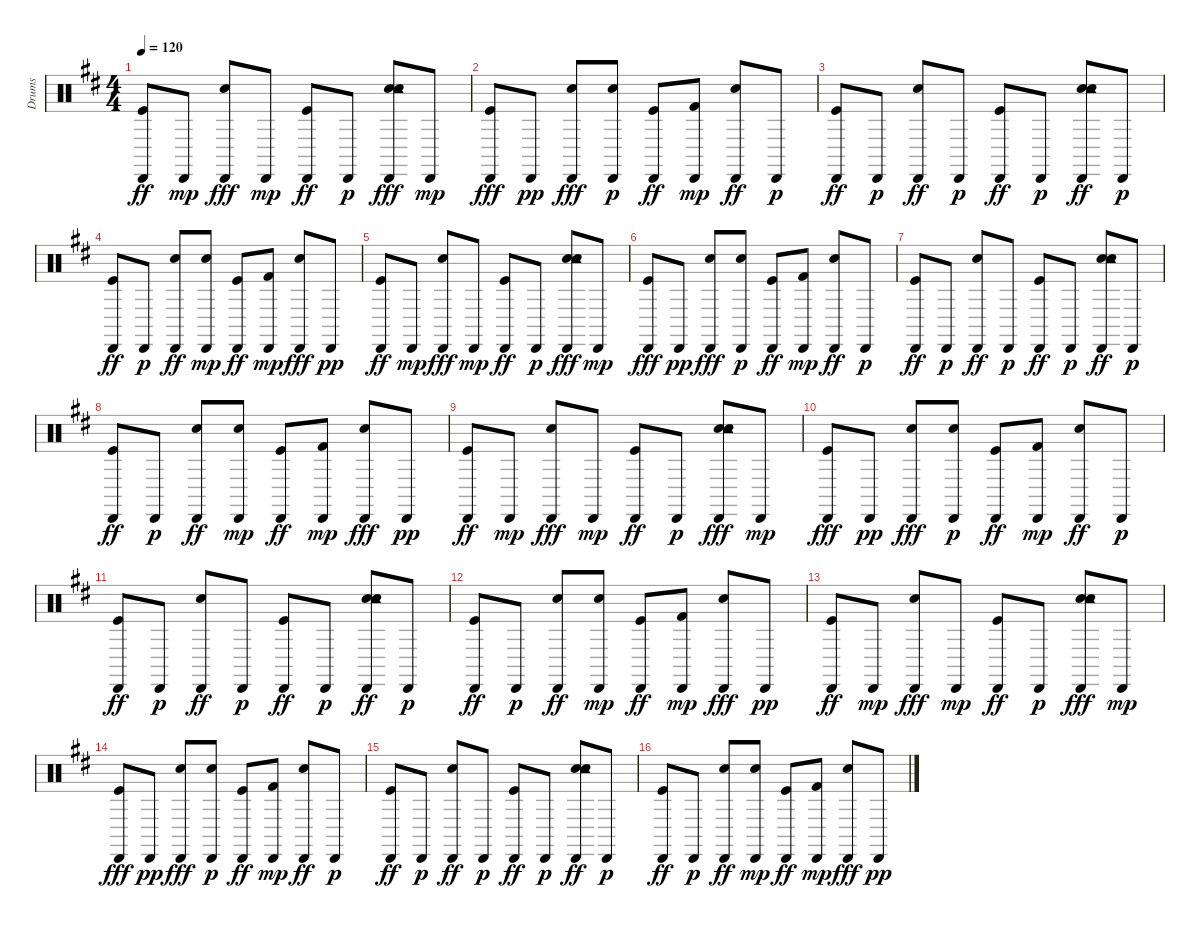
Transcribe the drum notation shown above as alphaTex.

\track ("Drums" "Drums") {instrument percussion}
\staff {score}
\articulation defaults
\ts (4 4)
\tempo 120
\clef neutral
\ks d
("Kick (hit)" "Cabasa (hit)").8{dy ff} "Cabasa (hit)".8{dy mp} ("Electric Snare (hit)" "Cabasa (hit)").8{dy fff} "Cabasa (hit)".8{dy mp} ("Kick (hit)" "Cabasa (hit)").8{dy ff} "Cabasa (hit)".8{dy p} ("Hand Clap (hit)" "Electric Snare (hit)" "Tambourine (hit)" "Cabasa (hit)").8{dy fff} "Cabasa (hit)".8{dy mp} |
("Kick (hit)" "Cabasa (hit)").8{dy fff} "Cabasa (hit)".8{dy pp} ("Electric Snare (hit)" "Cabasa (hit)").8{dy fff} ("Electric Snare (hit)" "Cabasa (hit)").8{dy p} ("Kick (hit)" "Cabasa (hit)").8{dy ff} ("Kick (hit) 2" "Cabasa (hit)").8{dy mp} ("Electric Snare (hit)" "Cabasa (hit)").8{dy ff} "Cabasa (hit)".8{dy p} |
("Kick (hit)" "Cabasa (hit)").8{dy ff} "Cabasa (hit)".8{dy p} ("Electric Snare (hit)" "Cabasa (hit)").8{dy ff} "Cabasa (hit)".8{dy p} ("Kick (hit)" "Cabasa (hit)").8{dy ff} "Cabasa (hit)".8{dy p} ("Hand Clap (hit)" "Electric Snare (hit)" "Tambourine (hit)" "Cabasa (hit)").8{dy ff} "Cabasa (hit)".8{dy p} |
("Kick (hit)" "Cabasa (hit)").8{dy ff} "Cabasa (hit)".8{dy p} ("Electric Snare (hit)" "Cabasa (hit)").8{dy ff} ("Electric Snare (hit)" "Cabasa (hit)").8{dy mp} ("Kick (hit)" "Cabasa (hit)").8{dy ff} ("Kick (hit) 2" "Cabasa (hit)").8{dy mp} ("Electric Snare (hit)" "Cabasa (hit)").8{dy fff} "Cabasa (hit)".8{dy pp} |
("Kick (hit)" "Cabasa (hit)").8{dy ff} "Cabasa (hit)".8{dy mp} ("Electric Snare (hit)" "Cabasa (hit)").8{dy fff} "Cabasa (hit)".8{dy mp} ("Kick (hit)" "Cabasa (hit)").8{dy ff} "Cabasa (hit)".8{dy p} ("Hand Clap (hit)" "Electric Snare (hit)" "Tambourine (hit)" "Cabasa (hit)").8{dy fff} "Cabasa (hit)".8{dy mp} |
("Kick (hit)" "Cabasa (hit)").8{dy fff} "Cabasa (hit)".8{dy pp} ("Electric Snare (hit)" "Cabasa (hit)").8{dy fff} ("Electric Snare (hit)" "Cabasa (hit)").8{dy p} ("Kick (hit)" "Cabasa (hit)").8{dy ff} ("Kick (hit) 2" "Cabasa (hit)").8{dy mp} ("Electric Snare (hit)" "Cabasa (hit)").8{dy ff} "Cabasa (hit)".8{dy p} |
("Kick (hit)" "Cabasa (hit)").8{dy ff} "Cabasa (hit)".8{dy p} ("Electric Snare (hit)" "Cabasa (hit)").8{dy ff} "Cabasa (hit)".8{dy p} ("Kick (hit)" "Cabasa (hit)").8{dy ff} "Cabasa (hit)".8{dy p} ("Hand Clap (hit)" "Electric Snare (hit)" "Tambourine (hit)" "Cabasa (hit)").8{dy ff} "Cabasa (hit)".8{dy p} |
("Kick (hit)" "Cabasa (hit)").8{dy ff} "Cabasa (hit)".8{dy p} ("Electric Snare (hit)" "Cabasa (hit)").8{dy ff} ("Electric Snare (hit)" "Cabasa (hit)").8{dy mp} ("Kick (hit)" "Cabasa (hit)").8{dy ff} ("Kick (hit) 2" "Cabasa (hit)").8{dy mp} ("Electric Snare (hit)" "Cabasa (hit)").8{dy fff} "Cabasa (hit)".8{dy pp} |
("Kick (hit)" "Cabasa (hit)").8{dy ff} "Cabasa (hit)".8{dy mp} ("Electric Snare (hit)" "Cabasa (hit)").8{dy fff} "Cabasa (hit)".8{dy mp} ("Kick (hit)" "Cabasa (hit)").8{dy ff} "Cabasa (hit)".8{dy p} ("Hand Clap (hit)" "Electric Snare (hit)" "Tambourine (hit)" "Cabasa (hit)").8{dy fff} "Cabasa (hit)".8{dy mp} |
("Kick (hit)" "Cabasa (hit)").8{dy fff} "Cabasa (hit)".8{dy pp} ("Electric Snare (hit)" "Cabasa (hit)").8{dy fff} ("Electric Snare (hit)" "Cabasa (hit)").8{dy p} ("Kick (hit)" "Cabasa (hit)").8{dy ff} ("Kick (hit) 2" "Cabasa (hit)").8{dy mp} ("Electric Snare (hit)" "Cabasa (hit)").8{dy ff} "Cabasa (hit)".8{dy p} |
("Kick (hit)" "Cabasa (hit)").8{dy ff} "Cabasa (hit)".8{dy p} ("Electric Snare (hit)" "Cabasa (hit)").8{dy ff} "Cabasa (hit)".8{dy p} ("Kick (hit)" "Cabasa (hit)").8{dy ff} "Cabasa (hit)".8{dy p} ("Hand Clap (hit)" "Electric Snare (hit)" "Tambourine (hit)" "Cabasa (hit)").8{dy ff} "Cabasa (hit)".8{dy p} |
("Kick (hit)" "Cabasa (hit)").8{dy ff} "Cabasa (hit)".8{dy p} ("Electric Snare (hit)" "Cabasa (hit)").8{dy ff} ("Electric Snare (hit)" "Cabasa (hit)").8{dy mp} ("Kick (hit)" "Cabasa (hit)").8{dy ff} ("Kick (hit) 2" "Cabasa (hit)").8{dy mp} ("Electric Snare (hit)" "Cabasa (hit)").8{dy fff} "Cabasa (hit)".8{dy pp} |
("Kick (hit)" "Cabasa (hit)").8{dy ff} "Cabasa (hit)".8{dy mp} ("Electric Snare (hit)" "Cabasa (hit)").8{dy fff} "Cabasa (hit)".8{dy mp} ("Kick (hit)" "Cabasa (hit)").8{dy ff} "Cabasa (hit)".8{dy p} ("Hand Clap (hit)" "Electric Snare (hit)" "Tambourine (hit)" "Cabasa (hit)").8{dy fff} "Cabasa (hit)".8{dy mp} |
("Kick (hit)" "Cabasa (hit)").8{dy fff} "Cabasa (hit)".8{dy pp} ("Electric Snare (hit)" "Cabasa (hit)").8{dy fff} ("Electric Snare (hit)" "Cabasa (hit)").8{dy p} ("Kick (hit)" "Cabasa (hit)").8{dy ff} ("Kick (hit) 2" "Cabasa (hit)").8{dy mp} ("Electric Snare (hit)" "Cabasa (hit)").8{dy ff} "Cabasa (hit)".8{dy p} |
("Kick (hit)" "Cabasa (hit)").8{dy ff} "Cabasa (hit)".8{dy p} ("Electric Snare (hit)" "Cabasa (hit)").8{dy ff} "Cabasa (hit)".8{dy p} ("Kick (hit)" "Cabasa (hit)").8{dy ff} "Cabasa (hit)".8{dy p} ("Hand Clap (hit)" "Electric Snare (hit)" "Tambourine (hit)" "Cabasa (hit)").8{dy ff} "Cabasa (hit)".8{dy p} |
("Kick (hit)" "Cabasa (hit)").8{dy ff} "Cabasa (hit)".8{dy p} ("Electric Snare (hit)" "Cabasa (hit)").8{dy ff} ("Electric Snare (hit)" "Cabasa (hit)").8{dy mp} ("Kick (hit)" "Cabasa (hit)").8{dy ff} ("Kick (hit) 2" "Cabasa (hit)").8{dy mp} ("Electric Snare (hit)" "Cabasa (hit)").8{dy fff} "Cabasa (hit)".8{dy pp}
